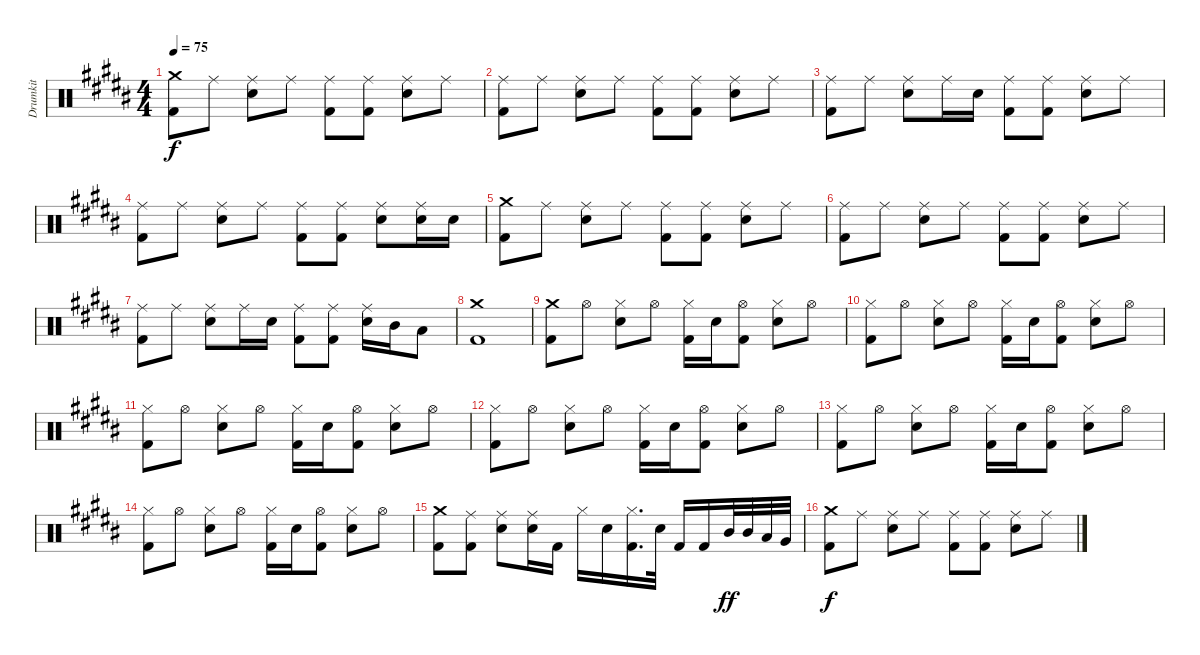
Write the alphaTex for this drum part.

\track ("Drumkit" "Drumkit") {instrument percussion}
\staff {score}
\articulation defaults
\ts (4 4)
\tempo 75
\clef neutral
\ks b
("Kick (hit) 2" "Crash medium (hit)").8{dy f} "Ride (middle)".8 ("Ride (middle)" "Snare (hit) 2").8 "Ride (middle)".8 ("Ride (middle)" "Kick (hit) 2").8 ("Ride (middle)" "Kick (hit) 2").8 ("Ride (middle)" "Snare (hit) 2").8 "Ride (middle)".8 |
("Kick (hit) 2" "Ride (middle)").8 "Ride (middle)".8 ("Ride (middle)" "Snare (hit) 2").8 "Ride (middle)".8 ("Ride (middle)" "Kick (hit) 2").8 ("Ride (middle)" "Kick (hit) 2").8 ("Ride (middle)" "Snare (hit) 2").8 "Ride (middle)".8 |
("Kick (hit) 2" "Ride (middle)").8 "Ride (middle)".8 ("Ride (middle)" "Snare (hit) 2").8 "Ride (middle)".16 "Snare (hit) 2".16 ("Ride (middle)" "Kick (hit) 2").8 ("Ride (middle)" "Kick (hit) 2").8 ("Ride (middle)" "Snare (hit) 2").8 "Ride (middle)".8 |
("Kick (hit) 2" "Ride (middle)").8 "Ride (middle)".8 ("Ride (middle)" "Snare (hit) 2").8 "Ride (middle)".8 ("Ride (middle)" "Kick (hit) 2").8 ("Ride (middle)" "Kick (hit) 2").8 ("Ride (middle)" "Snare (hit) 2").8 ("Ride (middle)" "Snare (hit) 2").16 "Snare (hit) 2".16 |
("Kick (hit) 2" "Crash medium (hit)").8 "Ride (middle)".8 ("Ride (middle)" "Snare (hit) 2").8 "Ride (middle)".8 ("Ride (middle)" "Kick (hit) 2").8 ("Ride (middle)" "Kick (hit) 2").8 ("Ride (middle)" "Snare (hit) 2").8 "Ride (middle)".8 |
("Kick (hit) 2" "Ride (middle)").8 "Ride (middle)".8 ("Ride (middle)" "Snare (hit) 2").8 "Ride (middle)".8 ("Ride (middle)" "Kick (hit) 2").8 ("Ride (middle)" "Kick (hit) 2").8 ("Ride (middle)" "Snare (hit) 2").8 "Ride (middle)".8 |
("Kick (hit) 2" "Ride (middle)").8 "Ride (middle)".8 ("Ride (middle)" "Snare (hit) 2").8 "Ride (middle)".16 "Snare (hit) 2".16 ("Ride (middle)" "Kick (hit) 2").8 ("Ride (middle)" "Kick (hit) 2").8 ("Ride (middle)" "Snare (hit) 2").16 "Mid Tom (hit)".16 "Low Tom (hit)".8 |
("Kick (hit) 2" "Crash medium (hit)").1 |
("Kick (hit) 2" "Crash medium (hit)").8 "Hi-Hat (open)".8 ("Snare (hit) 2" "Hi-Hat (closed)").8 "Hi-Hat (open)".8 ("Kick (hit) 2" "Hi-Hat (closed)").16 "Snare (hit) 2".16 ("Kick (hit) 2" "Hi-Hat (open)").8 ("Snare (hit) 2" "Hi-Hat (closed)").8 "Hi-Hat (open)".8 |
("Kick (hit) 2" "Hi-Hat (closed)").8 "Hi-Hat (open)".8 ("Snare (hit) 2" "Hi-Hat (closed)").8 "Hi-Hat (open)".8 ("Kick (hit) 2" "Hi-Hat (closed)").16 "Snare (hit) 2".16 ("Kick (hit) 2" "Hi-Hat (open)").8 ("Snare (hit) 2" "Hi-Hat (closed)").8 "Hi-Hat (open)".8 |
("Kick (hit) 2" "Hi-Hat (closed)").8 "Hi-Hat (open)".8 ("Snare (hit) 2" "Hi-Hat (closed)").8 "Hi-Hat (open)".8 ("Kick (hit) 2" "Hi-Hat (closed)").16 "Snare (hit) 2".16 ("Kick (hit) 2" "Hi-Hat (open)").8 ("Snare (hit) 2" "Hi-Hat (closed)").8 "Hi-Hat (open)".8 |
("Kick (hit) 2" "Hi-Hat (closed)").8 "Hi-Hat (open)".8 ("Snare (hit) 2" "Hi-Hat (closed)").8 "Hi-Hat (open)".8 ("Kick (hit) 2" "Hi-Hat (closed)").16 "Snare (hit) 2".16 ("Kick (hit) 2" "Hi-Hat (open)").8 ("Snare (hit) 2" "Hi-Hat (closed)").8 "Hi-Hat (open)".8 |
("Kick (hit) 2" "Hi-Hat (closed)").8 "Hi-Hat (open)".8 ("Snare (hit) 2" "Hi-Hat (closed)").8 "Hi-Hat (open)".8 ("Kick (hit) 2" "Hi-Hat (closed)").16 "Snare (hit) 2".16 ("Kick (hit) 2" "Hi-Hat (open)").8 ("Snare (hit) 2" "Hi-Hat (closed)").8 "Hi-Hat (open)".8 |
("Kick (hit) 2" "Hi-Hat (closed)").8 "Hi-Hat (open)".8 ("Snare (hit) 2" "Hi-Hat (closed)").8 "Hi-Hat (open)".8 ("Kick (hit) 2" "Hi-Hat (closed)").16 "Snare (hit) 2".16 ("Kick (hit) 2" "Hi-Hat (open)").8 ("Snare (hit) 2" "Hi-Hat (closed)").8 "Hi-Hat (open)".8 |
("Kick (hit) 2" "Crash medium (hit)").8 ("Ride (middle)" "Kick (hit) 2").8 ("Ride (middle)" "Snare (hit) 2").8 ("Ride (middle)" "Snare (hit) 2").16 "Kick (hit) 2".16 "Hi-Hat (closed)".16 "Snare (hit) 2".16 ("Kick (hit) 2" "Hi-Hat (closed)").16{d} "Snare (hit) 2".32 "Kick (hit) 2".16 "Kick (hit) 2".16 "Mid Tom (hit)".32{dy ff} "Mid Tom (hit)".32 "Low Tom (hit)".32 "Very Low Tom (hit)".32 |
("Kick (hit) 2" "Crash medium (hit)").8{dy f} "Ride (middle)".8 ("Ride (middle)" "Snare (hit) 2").8 "Ride (middle)".8 ("Ride (middle)" "Kick (hit) 2").8 ("Ride (middle)" "Kick (hit) 2").8 ("Ride (middle)" "Snare (hit) 2").8 "Ride (middle)".8
